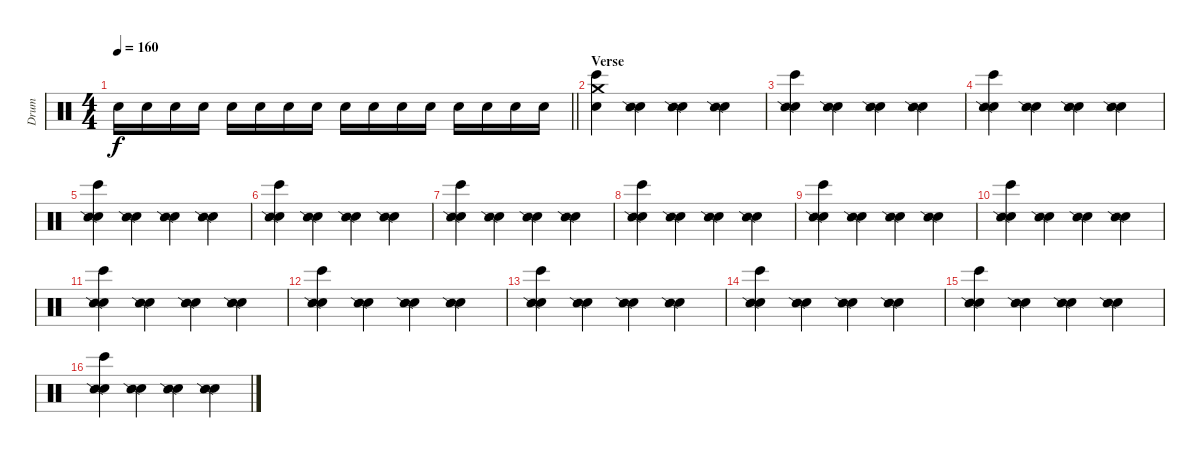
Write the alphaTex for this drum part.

\track ("Drum" "Drum") {instrument percussion}
\staff {score}
\articulation defaults
\ts (4 4)
\tempo 160
\clef neutral
\barLineRight lightlight
\ks c "Electric Snare (hit)".16{dy f} "Electric Snare (hit)".16 "Electric Snare (hit)".16 "Electric Snare (hit)".16 "Electric Snare (hit)".16 "Electric Snare (hit)".16 "Electric Snare (hit)".16 "Electric Snare (hit)".16 "Electric Snare (hit)".16 "Electric Snare (hit)".16 "Electric Snare (hit)".16 "Electric Snare (hit)".16 "Electric Snare (hit)".16 "Electric Snare (hit)".16 "Electric Snare (hit)".16 "Electric Snare (hit)".16
|
\section ("" "Verse")
("Electric Snare (hit)" "Bongo High (hit)" "Crash medium (hit)").4 ("Electric Snare (hit)" "Snare (side stick) 2").4 ("Electric Snare (hit)" "Snare (side stick) 2").4 ("Electric Snare (hit)" "Snare (side stick) 2").4 |
("Electric Snare (hit)" "Bongo High (hit)" "Snare (side stick) 2").4 ("Electric Snare (hit)" "Snare (side stick) 2").4 ("Electric Snare (hit)" "Snare (side stick) 2").4 ("Electric Snare (hit)" "Snare (side stick) 2").4 |
("Electric Snare (hit)" "Bongo High (hit)" "Snare (side stick) 2").4 ("Electric Snare (hit)" "Snare (side stick) 2").4 ("Electric Snare (hit)" "Snare (side stick) 2").4 ("Electric Snare (hit)" "Snare (side stick) 2").4 |
("Electric Snare (hit)" "Bongo High (hit)" "Snare (side stick) 2").4 ("Electric Snare (hit)" "Snare (side stick) 2").4 ("Electric Snare (hit)" "Snare (side stick) 2").4 ("Electric Snare (hit)" "Snare (side stick) 2").4 |
("Electric Snare (hit)" "Bongo High (hit)" "Snare (side stick) 2").4 ("Electric Snare (hit)" "Snare (side stick) 2").4 ("Electric Snare (hit)" "Snare (side stick) 2").4 ("Electric Snare (hit)" "Snare (side stick) 2").4 |
("Electric Snare (hit)" "Bongo High (hit)" "Snare (side stick) 2").4 ("Electric Snare (hit)" "Snare (side stick) 2").4 ("Electric Snare (hit)" "Snare (side stick) 2").4 ("Electric Snare (hit)" "Snare (side stick) 2").4 |
("Electric Snare (hit)" "Bongo High (hit)" "Snare (side stick) 2").4 ("Electric Snare (hit)" "Snare (side stick) 2").4 ("Electric Snare (hit)" "Snare (side stick) 2").4 ("Electric Snare (hit)" "Snare (side stick) 2").4 |
("Electric Snare (hit)" "Bongo High (hit)" "Snare (side stick) 2").4 ("Electric Snare (hit)" "Snare (side stick) 2").4 ("Electric Snare (hit)" "Snare (side stick) 2").4 ("Electric Snare (hit)" "Snare (side stick) 2").4 |
("Electric Snare (hit)" "Bongo High (hit)" "Snare (side stick) 2").4 ("Electric Snare (hit)" "Snare (side stick) 2").4 ("Electric Snare (hit)" "Snare (side stick) 2").4 ("Electric Snare (hit)" "Snare (side stick) 2").4 |
("Electric Snare (hit)" "Bongo High (hit)" "Snare (side stick) 2").4 ("Electric Snare (hit)" "Snare (side stick) 2").4 ("Electric Snare (hit)" "Snare (side stick) 2").4 ("Electric Snare (hit)" "Snare (side stick) 2").4 |
("Electric Snare (hit)" "Bongo High (hit)" "Snare (side stick) 2").4 ("Electric Snare (hit)" "Snare (side stick) 2").4 ("Electric Snare (hit)" "Snare (side stick) 2").4 ("Electric Snare (hit)" "Snare (side stick) 2").4 |
("Electric Snare (hit)" "Bongo High (hit)" "Snare (side stick) 2").4 ("Electric Snare (hit)" "Snare (side stick) 2").4 ("Electric Snare (hit)" "Snare (side stick) 2").4 ("Electric Snare (hit)" "Snare (side stick) 2").4 |
("Electric Snare (hit)" "Bongo High (hit)" "Snare (side stick) 2").4 ("Electric Snare (hit)" "Snare (side stick) 2").4 ("Electric Snare (hit)" "Snare (side stick) 2").4 ("Electric Snare (hit)" "Snare (side stick) 2").4 |
("Electric Snare (hit)" "Bongo High (hit)" "Snare (side stick) 2").4 ("Electric Snare (hit)" "Snare (side stick) 2").4 ("Electric Snare (hit)" "Snare (side stick) 2").4 ("Electric Snare (hit)" "Snare (side stick) 2").4 |
("Electric Snare (hit)" "Bongo High (hit)" "Snare (side stick) 2").4 ("Electric Snare (hit)" "Snare (side stick) 2").4 ("Electric Snare (hit)" "Snare (side stick) 2").4 ("Electric Snare (hit)" "Snare (side stick) 2").4
